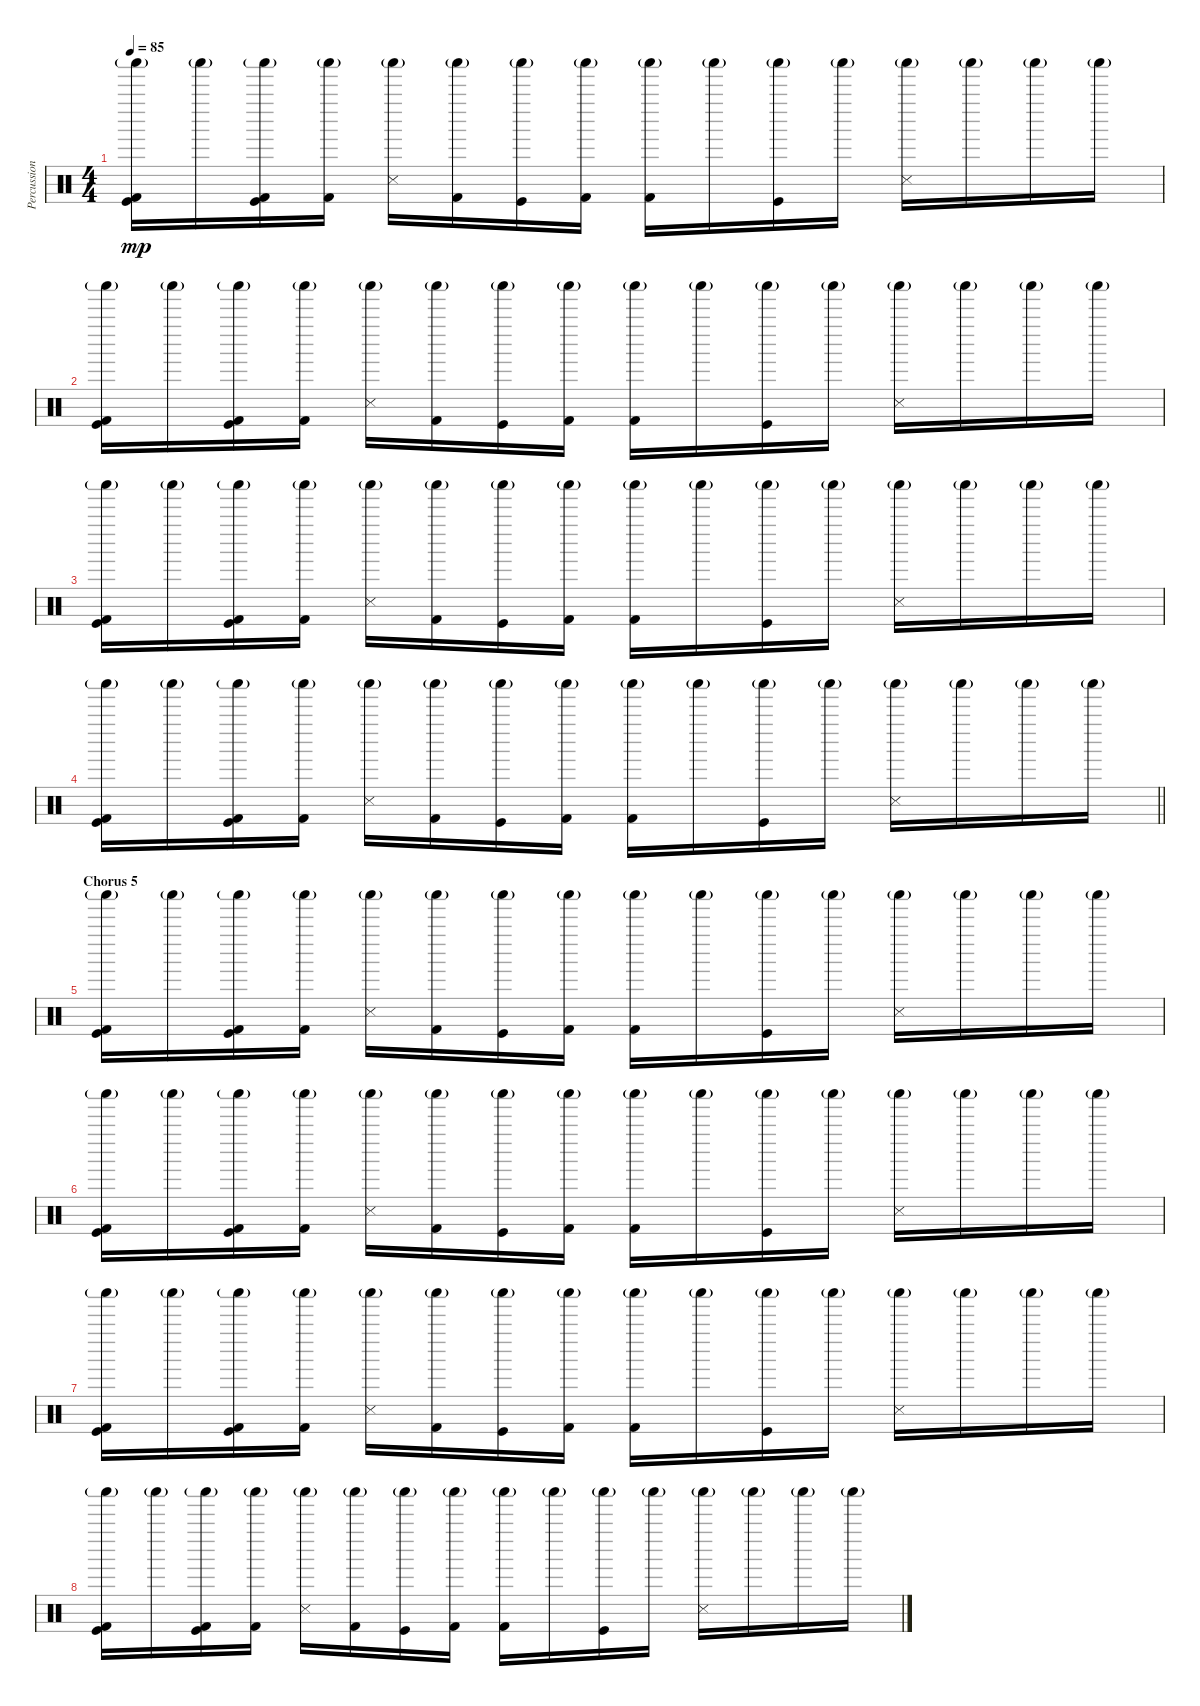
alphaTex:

\track ("Percussions" "Percussion") {instrument percussion}
\staff {score}
\articulation defaults
\ts (4 4)
\tempo 85
\clef neutral
\ks c
("Shaker (hit)"{g} "Kick (hit) 2" "Kick (hit)").16{dy mp} "Shaker (hit)"{g}.16 ("Shaker (hit)"{g} "Kick (hit) 2" "Kick (hit)").16 ("Shaker (hit)"{g} "Kick (hit) 2").16 ("Shaker (hit)"{g} "Snare (side stick) 3").16 ("Shaker (hit)"{g} "Kick (hit) 2").16 ("Shaker (hit)"{g} "Kick (hit)").16 ("Shaker (hit)"{g} "Kick (hit) 2").16 ("Shaker (hit)"{g} "Kick (hit) 2").16 "Shaker (hit)"{g}.16 ("Shaker (hit)"{g} "Kick (hit)").16 "Shaker (hit)"{g}.16 ("Shaker (hit)"{g} "Snare (side stick) 3").16 "Shaker (hit)"{g}.16 "Shaker (hit)"{g}.16 "Shaker (hit)"{g}.16 |
("Shaker (hit)"{g} "Kick (hit) 2" "Kick (hit)").16 "Shaker (hit)"{g}.16 ("Shaker (hit)"{g} "Kick (hit) 2" "Kick (hit)").16 ("Shaker (hit)"{g} "Kick (hit) 2").16 ("Shaker (hit)"{g} "Snare (side stick) 3").16 ("Shaker (hit)"{g} "Kick (hit) 2").16 ("Shaker (hit)"{g} "Kick (hit)").16 ("Shaker (hit)"{g} "Kick (hit) 2").16 ("Shaker (hit)"{g} "Kick (hit) 2").16 "Shaker (hit)"{g}.16 ("Shaker (hit)"{g} "Kick (hit)").16 "Shaker (hit)"{g}.16 ("Shaker (hit)"{g} "Snare (side stick) 3").16 "Shaker (hit)"{g}.16 "Shaker (hit)"{g}.16 "Shaker (hit)"{g}.16 |
("Shaker (hit)"{g} "Kick (hit) 2" "Kick (hit)").16 "Shaker (hit)"{g}.16 ("Shaker (hit)"{g} "Kick (hit) 2" "Kick (hit)").16 ("Shaker (hit)"{g} "Kick (hit) 2").16 ("Shaker (hit)"{g} "Snare (side stick) 3").16 ("Shaker (hit)"{g} "Kick (hit) 2").16 ("Shaker (hit)"{g} "Kick (hit)").16 ("Shaker (hit)"{g} "Kick (hit) 2").16 ("Shaker (hit)"{g} "Kick (hit) 2").16 "Shaker (hit)"{g}.16 ("Shaker (hit)"{g} "Kick (hit)").16 "Shaker (hit)"{g}.16 ("Shaker (hit)"{g} "Snare (side stick) 3").16 "Shaker (hit)"{g}.16 "Shaker (hit)"{g}.16 "Shaker (hit)"{g}.16 |
\barLineRight lightlight
("Shaker (hit)"{g} "Kick (hit) 2" "Kick (hit)").16 "Shaker (hit)"{g}.16 ("Shaker (hit)"{g} "Kick (hit) 2" "Kick (hit)").16 ("Shaker (hit)"{g} "Kick (hit) 2").16 ("Shaker (hit)"{g} "Snare (side stick) 3").16 ("Shaker (hit)"{g} "Kick (hit) 2").16 ("Shaker (hit)"{g} "Kick (hit)").16 ("Shaker (hit)"{g} "Kick (hit) 2").16 ("Shaker (hit)"{g} "Kick (hit) 2").16 "Shaker (hit)"{g}.16 ("Shaker (hit)"{g} "Kick (hit)").16 "Shaker (hit)"{g}.16 ("Shaker (hit)"{g} "Snare (side stick) 3").16 "Shaker (hit)"{g}.16 "Shaker (hit)"{g}.16 "Shaker (hit)"{g}.16 |
\section ("" "Chorus 5")
("Shaker (hit)"{g} "Kick (hit) 2" "Kick (hit)").16 "Shaker (hit)"{g}.16 ("Shaker (hit)"{g} "Kick (hit) 2" "Kick (hit)").16 ("Shaker (hit)"{g} "Kick (hit) 2").16 ("Shaker (hit)"{g} "Snare (side stick) 3").16 ("Shaker (hit)"{g} "Kick (hit) 2").16 ("Shaker (hit)"{g} "Kick (hit)").16 ("Shaker (hit)"{g} "Kick (hit) 2").16 ("Shaker (hit)"{g} "Kick (hit) 2").16 "Shaker (hit)"{g}.16 ("Shaker (hit)"{g} "Kick (hit)").16 "Shaker (hit)"{g}.16 ("Shaker (hit)"{g} "Snare (side stick) 3").16 "Shaker (hit)"{g}.16 "Shaker (hit)"{g}.16 "Shaker (hit)"{g}.16 |
("Shaker (hit)"{g} "Kick (hit) 2" "Kick (hit)").16 "Shaker (hit)"{g}.16 ("Shaker (hit)"{g} "Kick (hit) 2" "Kick (hit)").16 ("Shaker (hit)"{g} "Kick (hit) 2").16 ("Shaker (hit)"{g} "Snare (side stick) 3").16 ("Shaker (hit)"{g} "Kick (hit) 2").16 ("Shaker (hit)"{g} "Kick (hit)").16 ("Shaker (hit)"{g} "Kick (hit) 2").16 ("Shaker (hit)"{g} "Kick (hit) 2").16 "Shaker (hit)"{g}.16 ("Shaker (hit)"{g} "Kick (hit)").16 "Shaker (hit)"{g}.16 ("Shaker (hit)"{g} "Snare (side stick) 3").16 "Shaker (hit)"{g}.16 "Shaker (hit)"{g}.16 "Shaker (hit)"{g}.16 |
("Shaker (hit)"{g} "Kick (hit) 2" "Kick (hit)").16 "Shaker (hit)"{g}.16 ("Shaker (hit)"{g} "Kick (hit) 2" "Kick (hit)").16 ("Shaker (hit)"{g} "Kick (hit) 2").16 ("Shaker (hit)"{g} "Snare (side stick) 3").16 ("Shaker (hit)"{g} "Kick (hit) 2").16 ("Shaker (hit)"{g} "Kick (hit)").16 ("Shaker (hit)"{g} "Kick (hit) 2").16 ("Shaker (hit)"{g} "Kick (hit) 2").16 "Shaker (hit)"{g}.16 ("Shaker (hit)"{g} "Kick (hit)").16 "Shaker (hit)"{g}.16 ("Shaker (hit)"{g} "Snare (side stick) 3").16 "Shaker (hit)"{g}.16 "Shaker (hit)"{g}.16 "Shaker (hit)"{g}.16 |
("Shaker (hit)"{g} "Kick (hit) 2" "Kick (hit)").16 "Shaker (hit)"{g}.16 ("Shaker (hit)"{g} "Kick (hit) 2" "Kick (hit)").16 ("Shaker (hit)"{g} "Kick (hit) 2").16 ("Shaker (hit)"{g} "Snare (side stick) 3").16 ("Shaker (hit)"{g} "Kick (hit) 2").16 ("Shaker (hit)"{g} "Kick (hit)").16 ("Shaker (hit)"{g} "Kick (hit) 2").16 ("Shaker (hit)"{g} "Kick (hit) 2").16 "Shaker (hit)"{g}.16 ("Shaker (hit)"{g} "Kick (hit)").16 "Shaker (hit)"{g}.16 ("Shaker (hit)"{g} "Snare (side stick) 3").16 "Shaker (hit)"{g}.16 "Shaker (hit)"{g}.16 "Shaker (hit)"{g}.16
